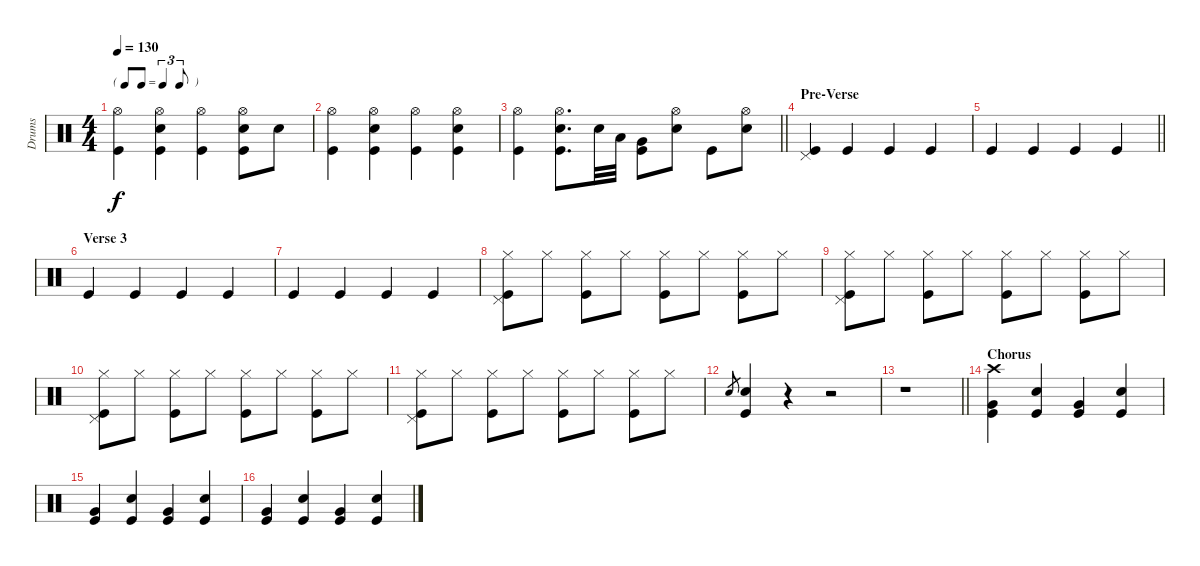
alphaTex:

\track ("Drums" "Drums") {instrument percussion}
\staff {score}
\articulation defaults
\ts (4 4)
\tf triplet8th
\tempo 130
\clef neutral
\ks c
("Hi-Hat (open)" "Kick (hit)").4{dy f} ("Hi-Hat (open)" "Snare (hit) 2" "Kick (hit)").4 ("Hi-Hat (open)" "Kick (hit)").4 ("Hi-Hat (open)" "Snare (hit) 2" "Kick (hit)").8 "Snare (hit) 2".8 |
("Hi-Hat (open)" "Kick (hit)").4 ("Hi-Hat (open)" "Snare (hit) 2" "Kick (hit)").4 ("Hi-Hat (open)" "Kick (hit)").4 ("Hi-Hat (open)" "Snare (hit) 2" "Kick (hit)").4 |
\barLineRight lightlight
("Hi-Hat (open)" "Kick (hit)").4 ("Hi-Hat (open)" "Snare (hit) 2" "Kick (hit)").8{d} "Snare (hit) 2".32 "Low Tom (hit)".32 ("Very Low Tom (hit)" "Kick (hit)").8 ("Hi-Hat (open)" "Snare (hit) 2").8 "Kick (hit)".8 ("Snare (hit) 2" "Hi-Hat (open)").8 |
\section ("" "Pre-Verse")
("Kick (hit)" "Pedal Hi-Hat (hit)").4 "Kick (hit)".4 "Kick (hit)".4 "Kick (hit)".4 |
\barLineRight lightlight "Kick (hit)".4 "Kick (hit)".4 "Kick (hit)".4 "Kick (hit)".4
|
\section ("" "Verse 3")
"Kick (hit)".4 "Kick (hit)".4 "Kick (hit)".4 "Kick (hit)".4 |
"Kick (hit)".4 "Kick (hit)".4 "Kick (hit)".4 "Kick (hit)".4 |
("Kick (hit)" "Hi-Hat (closed)" "Pedal Hi-Hat (hit)").8 "Hi-Hat (closed)".8 ("Kick (hit)" "Hi-Hat (closed)").8 "Hi-Hat (closed)".8 ("Kick (hit)" "Hi-Hat (closed)").8 "Hi-Hat (closed)".8 ("Kick (hit)" "Hi-Hat (closed)").8 "Hi-Hat (closed)".8 |
("Kick (hit)" "Hi-Hat (closed)" "Pedal Hi-Hat (hit)").8 "Hi-Hat (closed)".8 ("Kick (hit)" "Hi-Hat (closed)").8 "Hi-Hat (closed)".8 ("Kick (hit)" "Hi-Hat (closed)").8 "Hi-Hat (closed)".8 ("Kick (hit)" "Hi-Hat (closed)").8 "Hi-Hat (closed)".8 |
("Kick (hit)" "Hi-Hat (closed)" "Pedal Hi-Hat (hit)").8 "Hi-Hat (closed)".8 ("Kick (hit)" "Hi-Hat (closed)").8 "Hi-Hat (closed)".8 ("Kick (hit)" "Hi-Hat (closed)").8 "Hi-Hat (closed)".8 ("Kick (hit)" "Hi-Hat (closed)").8 "Hi-Hat (closed)".8 |
("Kick (hit)" "Hi-Hat (closed)" "Pedal Hi-Hat (hit)").8 "Hi-Hat (closed)".8 ("Kick (hit)" "Hi-Hat (closed)").8 "Hi-Hat (closed)".8 ("Kick (hit)" "Hi-Hat (closed)").8 "Hi-Hat (closed)".8 ("Kick (hit)" "Hi-Hat (closed)").8 "Hi-Hat (closed)".8 |
"Snare (hit) 2".8{gr} ("Kick (hit)" "Snare (hit) 2").4 r.4 r.2 |
\barLineRight lightlight
r.1 |
\section ("" "Chorus")
("Kick (hit)" "Crash high (hit)" "Very Low Tom (hit)").4 ("Snare (hit) 2" "Kick (hit)").4 ("Kick (hit)" "Very Low Tom (hit)").4 ("Snare (hit) 2" "Kick (hit)").4 |
("Kick (hit)" "Very Low Tom (hit)").4 ("Snare (hit) 2" "Kick (hit)").4 ("Kick (hit)" "Very Low Tom (hit)").4 ("Snare (hit) 2" "Kick (hit)").4 |
("Kick (hit)" "Very Low Tom (hit)").4 ("Snare (hit) 2" "Kick (hit)").4 ("Kick (hit)" "Very Low Tom (hit)").4 ("Snare (hit) 2" "Kick (hit)").4
